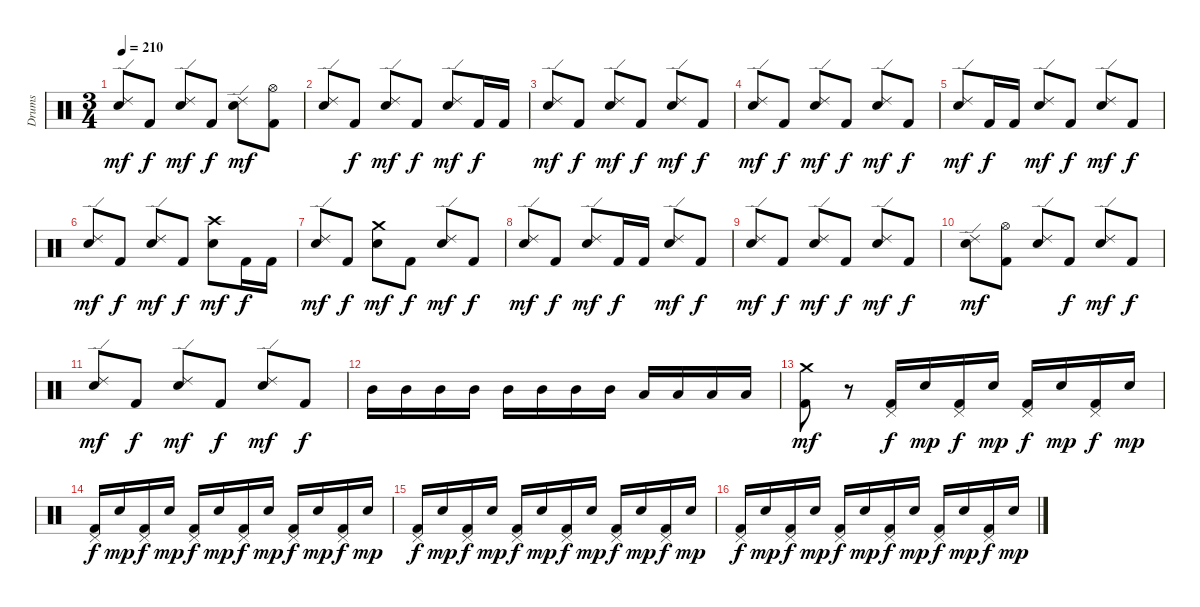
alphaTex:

\track ("Drums" "Drums") {instrument percussion}
\staff {score}
\articulation defaults
\ts (3 4)
\tempo 210
\clef neutral
\ks c
("Ride (edge) 2" "Electric Snare (hit)").8{dy mf} "Kick (hit) 2".8{dy f} ("Ride (edge) 2" "Electric Snare (hit)").8{dy mf} "Kick (hit) 2".8{dy f} ("Ride (edge) 2" "Electric Snare (hit)").8{dy mf} ("Hi-Hat (open)" "Kick (hit) 2").8 |
("Ride (edge) 2" "Electric Snare (hit)").8 "Kick (hit) 2".8{dy f} ("Ride (edge) 2" "Electric Snare (hit)").8{dy mf} "Kick (hit) 2".8{dy f} ("Ride (edge) 2" "Electric Snare (hit)").8{dy mf} "Kick (hit) 2".16{dy f} "Kick (hit) 2".16 |
("Ride (edge) 2" "Electric Snare (hit)").8{dy mf} "Kick (hit) 2".8{dy f} ("Ride (edge) 2" "Electric Snare (hit)").8{dy mf} "Kick (hit) 2".8{dy f} ("Ride (edge) 2" "Electric Snare (hit)").8{dy mf} "Kick (hit) 2".8{dy f} |
("Ride (edge) 2" "Electric Snare (hit)").8{dy mf} "Kick (hit) 2".8{dy f} ("Ride (edge) 2" "Electric Snare (hit)").8{dy mf} "Kick (hit) 2".8{dy f} ("Ride (edge) 2" "Electric Snare (hit)").8{dy mf} "Kick (hit) 2".8{dy f} |
("Ride (edge) 2" "Electric Snare (hit)").8{dy mf} "Kick (hit) 2".16{dy f} "Kick (hit) 2".16 ("Ride (edge) 2" "Electric Snare (hit)").8{dy mf} "Kick (hit) 2".8{dy f} ("Ride (edge) 2" "Electric Snare (hit)").8{dy mf} "Kick (hit) 2".8{dy f} |
("Ride (edge) 2" "Electric Snare (hit)").8{dy mf} "Kick (hit) 2".8{dy f} ("Ride (edge) 2" "Electric Snare (hit)").8{dy mf} "Kick (hit) 2".8{dy f} ("Crash high (hit)" "Electric Snare (hit)").8{dy mf} "Kick (hit) 2".16{dy f} "Kick (hit) 2".16 |
("Ride (edge) 2" "Electric Snare (hit)").8{dy mf} "Kick (hit) 2".8{dy f} ("Crash medium (hit)" "Electric Snare (hit)").8{dy mf} "Kick (hit) 2".8{dy f} ("Ride (edge) 2" "Electric Snare (hit)").8{dy mf} "Kick (hit) 2".8{dy f} |
("Ride (edge) 2" "Electric Snare (hit)").8{dy mf} "Kick (hit) 2".8{dy f} ("Ride (edge) 2" "Electric Snare (hit)").8{dy mf} "Kick (hit) 2".16{dy f} "Kick (hit) 2".16 ("Ride (edge) 2" "Electric Snare (hit)").8{dy mf} "Kick (hit) 2".8{dy f} |
("Ride (edge) 2" "Electric Snare (hit)").8{dy mf} "Kick (hit) 2".8{dy f} ("Ride (edge) 2" "Electric Snare (hit)").8{dy mf} "Kick (hit) 2".8{dy f} ("Ride (edge) 2" "Electric Snare (hit)").8{dy mf} "Kick (hit) 2".8{dy f} |
("Ride (edge) 2" "Electric Snare (hit)").8{dy mf} ("Hi-Hat (open)" "Kick (hit) 2").8 ("Ride (edge) 2" "Electric Snare (hit)").8 "Kick (hit) 2".8{dy f} ("Ride (edge) 2" "Electric Snare (hit)").8{dy mf} "Kick (hit) 2".8{dy f} |
("Ride (edge) 2" "Electric Snare (hit)").8{dy mf} "Kick (hit) 2".8{dy f} ("Ride (edge) 2" "Electric Snare (hit)").8{dy mf} "Kick (hit) 2".8{dy f} ("Ride (edge) 2" "Electric Snare (hit)").8{dy mf} "Kick (hit) 2".8{dy f} |
"Mid Tom (hit)".16 "Mid Tom (hit)".16 "Mid Tom (hit)".16 "Mid Tom (hit)".16 "Mid Tom (hit)".16 "Mid Tom (hit)".16 "Mid Tom (hit)".16 "Mid Tom (hit)".16 "Low Tom (hit)".16 "Low Tom (hit)".16 "Low Tom (hit)".16 "Low Tom (hit)".16 |
("Crash medium (hit)" "Kick (hit) 2").8{dy mf} r.8 ("Pedal Hi-Hat (hit)" "Kick (hit) 2").16{dy f} "Electric Snare (hit)".16{dy mp} ("Pedal Hi-Hat (hit)" "Kick (hit) 2").16{dy f} "Electric Snare (hit)".16{dy mp} ("Pedal Hi-Hat (hit)" "Kick (hit) 2").16{dy f} "Electric Snare (hit)".16{dy mp} ("Pedal Hi-Hat (hit)" "Kick (hit) 2").16{dy f} "Electric Snare (hit)".16{dy mp} |
("Pedal Hi-Hat (hit)" "Kick (hit) 2").16{dy f} "Electric Snare (hit)".16{dy mp} ("Pedal Hi-Hat (hit)" "Kick (hit) 2").16{dy f} "Electric Snare (hit)".16{dy mp} ("Pedal Hi-Hat (hit)" "Kick (hit) 2").16{dy f} "Electric Snare (hit)".16{dy mp} ("Pedal Hi-Hat (hit)" "Kick (hit) 2").16{dy f} "Electric Snare (hit)".16{dy mp} ("Pedal Hi-Hat (hit)" "Kick (hit) 2").16{dy f} "Electric Snare (hit)".16{dy mp} ("Pedal Hi-Hat (hit)" "Kick (hit) 2").16{dy f} "Electric Snare (hit)".16{dy mp} |
("Pedal Hi-Hat (hit)" "Kick (hit) 2").16{dy f} "Electric Snare (hit)".16{dy mp} ("Pedal Hi-Hat (hit)" "Kick (hit) 2").16{dy f} "Electric Snare (hit)".16{dy mp} ("Pedal Hi-Hat (hit)" "Kick (hit) 2").16{dy f} "Electric Snare (hit)".16{dy mp} ("Pedal Hi-Hat (hit)" "Kick (hit) 2").16{dy f} "Electric Snare (hit)".16{dy mp} ("Pedal Hi-Hat (hit)" "Kick (hit) 2").16{dy f} "Electric Snare (hit)".16{dy mp} ("Pedal Hi-Hat (hit)" "Kick (hit) 2").16{dy f} "Electric Snare (hit)".16{dy mp} |
("Pedal Hi-Hat (hit)" "Kick (hit) 2").16{dy f} "Electric Snare (hit)".16{dy mp} ("Pedal Hi-Hat (hit)" "Kick (hit) 2").16{dy f} "Electric Snare (hit)".16{dy mp} ("Pedal Hi-Hat (hit)" "Kick (hit) 2").16{dy f} "Electric Snare (hit)".16{dy mp} ("Pedal Hi-Hat (hit)" "Kick (hit) 2").16{dy f} "Electric Snare (hit)".16{dy mp} ("Pedal Hi-Hat (hit)" "Kick (hit) 2").16{dy f} "Electric Snare (hit)".16{dy mp} ("Pedal Hi-Hat (hit)" "Kick (hit) 2").16{dy f} "Electric Snare (hit)".16{dy mp}
